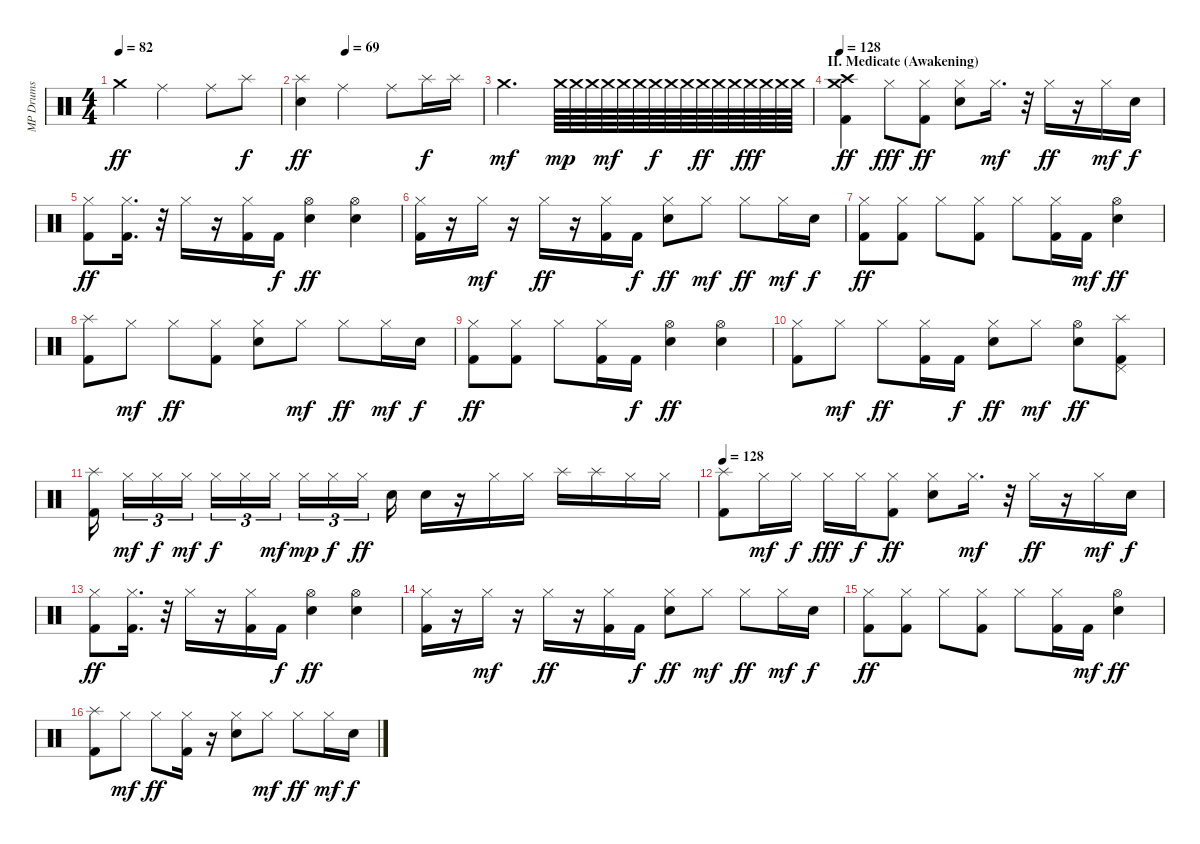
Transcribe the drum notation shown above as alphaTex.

\track ("MP Drums" "MP Drums") {instrument percussion}
\staff {score}
\articulation defaults
\ts (4 4)
\tempo 82
\clef neutral
\ks c "Crash medium (hit)".4{dy ff} "Ride (middle)".2 "Ride (middle)".8 "Splash (hit)".8{dy f}
|
\tempo (69 0.25)
("Splash (hit)" "Snare (hit)"{t}).4{dy ff} "Ride (middle)".2 "Ride (middle)".8 "Splash (hit)".16{dy f} "Splash (hit)".16 |
"Crash medium (hit)".2{d dy mf} "Crash medium (hit)".64{dy mp} "Crash medium (hit)".64 "Crash medium (hit)".64 "Crash medium (hit)".64{dy mf} "Crash medium (hit)".64 "Crash medium (hit)".64 "Crash medium (hit)".64{dy f} "Crash medium (hit)".64 "Crash medium (hit)".64 "Crash medium (hit)".64{dy ff} "Crash medium (hit)".64 "Crash medium (hit)".64 "Crash medium (hit)".64{dy fff} "Crash medium (hit)".64 "Crash medium (hit)".64 "Crash medium (hit)".64 |
\section ("" "II. Medicate (Awakening)")
\tempo 128
("Crash high (hit)" "Crash medium (hit)" "Kick (hit) 2").4{dy ff} "Hi-Hat (closed)".8{dy fff} ("Hi-Hat (closed)" "Kick (hit) 2").8{dy ff} ("Hi-Hat (closed)" "Snare (hit) 2").8 "Hi-Hat (closed)".16{d dy mf} r.32 "Hi-Hat (closed)".16{dy ff} r.16 "Hi-Hat (closed)".16{dy mf} "Snare (hit) 2".16{dy f} |
("Hi-Hat (closed)" "Kick (hit) 2").8{dy ff} ("Hi-Hat (closed)" "Kick (hit) 2").16{d} r.32 "Hi-Hat (closed)".16 r.16 ("Hi-Hat (closed)" "Kick (hit) 2").16 "Kick (hit) 2".16{dy f} ("Hi-Hat (open)" "Snare (hit) 2").4{dy ff} ("Hi-Hat (open)" "Snare (hit) 2").4 |
("Hi-Hat (closed)" "Kick (hit) 2").16 r.16 "Hi-Hat (closed)".16{dy mf} r.16 "Hi-Hat (closed)".16{dy ff} r.16 ("Hi-Hat (closed)" "Kick (hit) 2").16 "Kick (hit) 2".16{dy f} ("Hi-Hat (closed)" "Snare (hit) 2").8{dy ff} "Hi-Hat (closed)".8{dy mf} "Hi-Hat (closed)".8{dy ff} "Hi-Hat (closed)".16{dy mf} "Snare (hit) 2".16{dy f} |
("Hi-Hat (closed)" "Kick (hit) 2").8{dy ff} ("Hi-Hat (closed)" "Kick (hit) 2").8 "Hi-Hat (closed)".8 ("Hi-Hat (closed)" "Kick (hit) 2").8 "Hi-Hat (closed)".8 ("Hi-Hat (closed)" "Kick (hit) 2").16 "Kick (hit) 2".16{dy mf} ("Hi-Hat (open)" "Snare (hit) 2").4{dy ff} |
("Splash (hit)" "Kick (hit) 2").8 "Hi-Hat (closed)".8{dy mf} "Hi-Hat (closed)".8{dy ff} ("Hi-Hat (closed)" "Kick (hit) 2").8 ("Hi-Hat (closed)" "Snare (hit) 2").8 "Hi-Hat (closed)".8{dy mf} "Hi-Hat (closed)".8{dy ff} "Hi-Hat (closed)".16{dy mf} "Snare (hit) 2".16{dy f} |
("Hi-Hat (closed)" "Kick (hit) 2").8{dy ff} ("Hi-Hat (closed)" "Kick (hit) 2").8 "Hi-Hat (closed)".8 ("Hi-Hat (closed)" "Kick (hit) 2").16 "Kick (hit) 2".16{dy f} ("Hi-Hat (open)" "Snare (hit) 2").4{dy ff} ("Hi-Hat (open)" "Snare (hit) 2").4 |
("Hi-Hat (closed)" "Kick (hit) 2").8 "Hi-Hat (closed)".8{dy mf} "Hi-Hat (closed)".8{dy ff} ("Hi-Hat (closed)" "Kick (hit) 2").16 "Kick (hit) 2".16{dy f} ("Hi-Hat (closed)" "Snare (hit) 2").8{dy ff} "Hi-Hat (closed)".8{dy mf} ("Hi-Hat (open)" "Snare (hit) 2").8{dy ff} ("Splash (hit)" "Pedal Hi-Hat (hit)" "Kick (hit) 2").8 |
("Splash (hit)" "Kick (hit) 2").16 "Hi-Hat (closed)".16{tu (3 2) dy mf} "Hi-Hat (closed)".16{tu (3 2) dy f} "Hi-Hat (closed)".16{tu (3 2) dy mf} "Hi-Hat (closed)".16{tu (3 2) dy f} "Hi-Hat (closed)".16{tu (3 2)} "Hi-Hat (closed)".16{tu (3 2) dy mf} "Hi-Hat (closed)".16{tu (3 2) dy mp} "Hi-Hat (closed)".16{tu (3 2) dy f} "Hi-Hat (closed)".16{tu (3 2) dy ff} "Snare (hit) 2".16 "Snare (hit) 2".16 r.16 "Hi-Hat (closed)".16 "Hi-Hat (closed)".16 "Splash (hit)".16 "Splash (hit)".16 "Hi-Hat (closed)".16 "Hi-Hat (closed)".16 |
\tempo 128
("Splash (hit)" "Kick (hit) 2").8 "Hi-Hat (closed)".16{dy mf} "Hi-Hat (closed)".16{dy f} "Hi-Hat (closed)".16{dy fff} "Hi-Hat (closed)".16{dy f} ("Hi-Hat (closed)" "Kick (hit) 2").8{dy ff} ("Hi-Hat (closed)" "Snare (hit) 2").8 "Hi-Hat (closed)".16{d dy mf} r.32 "Hi-Hat (closed)".16{dy ff} r.16 "Hi-Hat (closed)".16{dy mf} "Snare (hit) 2".16{dy f} |
("Hi-Hat (closed)" "Kick (hit) 2").8{dy ff} ("Hi-Hat (closed)" "Kick (hit) 2").16{d} r.32 "Hi-Hat (closed)".16 r.16 ("Hi-Hat (closed)" "Kick (hit) 2").16 "Kick (hit) 2".16{dy f} ("Hi-Hat (open)" "Snare (hit) 2").4{dy ff} ("Hi-Hat (open)" "Snare (hit) 2").4 |
("Hi-Hat (closed)" "Kick (hit) 2").16 r.16 "Hi-Hat (closed)".16{dy mf} r.16 "Hi-Hat (closed)".16{dy ff} r.16 ("Hi-Hat (closed)" "Kick (hit) 2").16 "Kick (hit) 2".16{dy f} ("Hi-Hat (closed)" "Snare (hit) 2").8{dy ff} "Hi-Hat (closed)".8{dy mf} "Hi-Hat (closed)".8{dy ff} "Hi-Hat (closed)".16{dy mf} "Snare (hit) 2".16{dy f} |
("Hi-Hat (closed)" "Kick (hit) 2").8{dy ff} ("Hi-Hat (closed)" "Kick (hit) 2").8 "Hi-Hat (closed)".8 ("Hi-Hat (closed)" "Kick (hit) 2").8 "Hi-Hat (closed)".8 ("Hi-Hat (closed)" "Kick (hit) 2").16 "Kick (hit) 2".16{dy mf} ("Hi-Hat (open)" "Snare (hit) 2").4{dy ff} |
("Splash (hit)" "Kick (hit) 2").8 "Hi-Hat (closed)".8{dy mf} "Hi-Hat (closed)".8{dy ff} ("Hi-Hat (closed)" "Kick (hit) 2").16 r.16 ("Hi-Hat (closed)" "Snare (hit) 2").8 "Hi-Hat (closed)".8{dy mf} "Hi-Hat (closed)".8{dy ff} "Hi-Hat (closed)".16{dy mf} "Snare (hit) 2".16{dy f}
